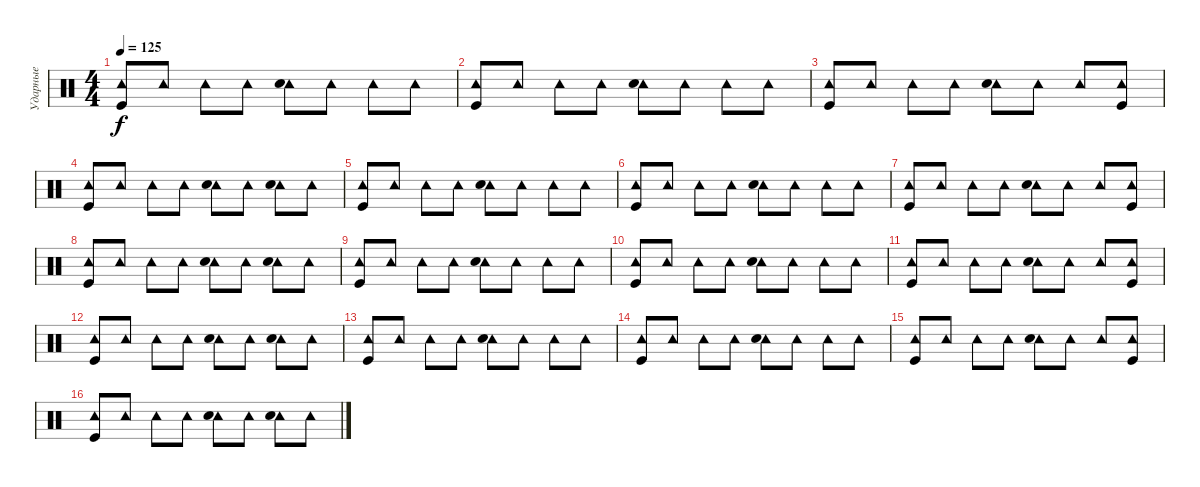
\track ("Ударные" "Ударные") {instrument percussion}
\staff {score}
\articulation defaults
\ts (4 4)
\tempo 125
\clef neutral
\ks c
("Tambourine (hit)" "Kick (hit)").8{dy f} "Tambourine (hit)".8 "Tambourine (hit)".8 "Tambourine (hit)".8 ("Tambourine (hit)" "Snare (hit) 2").8 "Tambourine (hit)".8 "Tambourine (hit)".8 "Tambourine (hit)".8 |
("Tambourine (hit)" "Kick (hit)").8 "Tambourine (hit)".8 "Tambourine (hit)".8 "Tambourine (hit)".8 ("Tambourine (hit)" "Snare (hit) 2").8 "Tambourine (hit)".8 "Tambourine (hit)".8 "Tambourine (hit)".8 |
("Tambourine (hit)" "Kick (hit)").8 "Tambourine (hit)".8 "Tambourine (hit)".8 "Tambourine (hit)".8 ("Tambourine (hit)" "Snare (hit) 2").8 "Tambourine (hit)".8 "Tambourine (hit)".8 ("Tambourine (hit)" "Kick (hit)").8 |
("Tambourine (hit)" "Kick (hit)").8 "Tambourine (hit)".8 "Tambourine (hit)".8 "Tambourine (hit)".8 ("Tambourine (hit)" "Snare (hit) 2").8 "Tambourine (hit)".8 ("Tambourine (hit)" "Snare (hit) 2").8 "Tambourine (hit)".8 |
("Tambourine (hit)" "Kick (hit)").8 "Tambourine (hit)".8 "Tambourine (hit)".8 "Tambourine (hit)".8 ("Tambourine (hit)" "Snare (hit) 2").8 "Tambourine (hit)".8 "Tambourine (hit)".8 "Tambourine (hit)".8 |
("Tambourine (hit)" "Kick (hit)").8 "Tambourine (hit)".8 "Tambourine (hit)".8 "Tambourine (hit)".8 ("Tambourine (hit)" "Snare (hit) 2").8 "Tambourine (hit)".8 "Tambourine (hit)".8 "Tambourine (hit)".8 |
("Tambourine (hit)" "Kick (hit)").8 "Tambourine (hit)".8 "Tambourine (hit)".8 "Tambourine (hit)".8 ("Tambourine (hit)" "Snare (hit) 2").8 "Tambourine (hit)".8 "Tambourine (hit)".8 ("Tambourine (hit)" "Kick (hit)").8 |
("Tambourine (hit)" "Kick (hit)").8 "Tambourine (hit)".8 "Tambourine (hit)".8 "Tambourine (hit)".8 ("Tambourine (hit)" "Snare (hit) 2").8 "Tambourine (hit)".8 ("Tambourine (hit)" "Snare (hit) 2").8 "Tambourine (hit)".8 |
("Tambourine (hit)" "Kick (hit)").8 "Tambourine (hit)".8 "Tambourine (hit)".8 "Tambourine (hit)".8 ("Tambourine (hit)" "Snare (hit) 2").8 "Tambourine (hit)".8 "Tambourine (hit)".8 "Tambourine (hit)".8 |
("Tambourine (hit)" "Kick (hit)").8 "Tambourine (hit)".8 "Tambourine (hit)".8 "Tambourine (hit)".8 ("Tambourine (hit)" "Snare (hit) 2").8 "Tambourine (hit)".8 "Tambourine (hit)".8 "Tambourine (hit)".8 |
("Tambourine (hit)" "Kick (hit)").8 "Tambourine (hit)".8 "Tambourine (hit)".8 "Tambourine (hit)".8 ("Tambourine (hit)" "Snare (hit) 2").8 "Tambourine (hit)".8 "Tambourine (hit)".8 ("Tambourine (hit)" "Kick (hit)").8 |
("Tambourine (hit)" "Kick (hit)").8 "Tambourine (hit)".8 "Tambourine (hit)".8 "Tambourine (hit)".8 ("Tambourine (hit)" "Snare (hit) 2").8 "Tambourine (hit)".8 ("Tambourine (hit)" "Snare (hit) 2").8 "Tambourine (hit)".8 |
("Tambourine (hit)" "Kick (hit)").8 "Tambourine (hit)".8 "Tambourine (hit)".8 "Tambourine (hit)".8 ("Tambourine (hit)" "Snare (hit) 2").8 "Tambourine (hit)".8 "Tambourine (hit)".8 "Tambourine (hit)".8 |
("Tambourine (hit)" "Kick (hit)").8 "Tambourine (hit)".8 "Tambourine (hit)".8 "Tambourine (hit)".8 ("Tambourine (hit)" "Snare (hit) 2").8 "Tambourine (hit)".8 "Tambourine (hit)".8 "Tambourine (hit)".8 |
("Tambourine (hit)" "Kick (hit)").8 "Tambourine (hit)".8 "Tambourine (hit)".8 "Tambourine (hit)".8 ("Tambourine (hit)" "Snare (hit) 2").8 "Tambourine (hit)".8 "Tambourine (hit)".8 ("Tambourine (hit)" "Kick (hit)").8 |
("Tambourine (hit)" "Kick (hit)").8 "Tambourine (hit)".8 "Tambourine (hit)".8 "Tambourine (hit)".8 ("Tambourine (hit)" "Snare (hit) 2").8 "Tambourine (hit)".8 ("Tambourine (hit)" "Snare (hit) 2").8 "Tambourine (hit)".8
